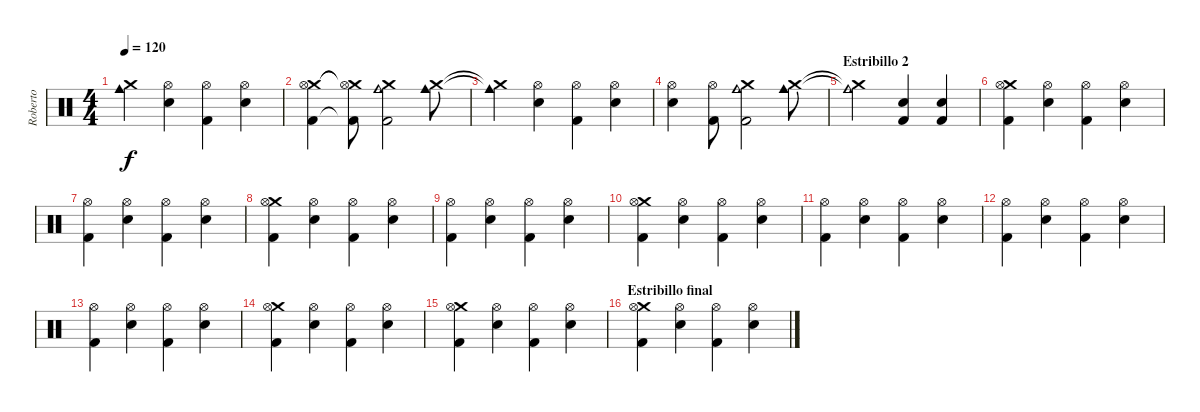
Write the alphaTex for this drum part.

\track ("Roberto" "Roberto") {instrument percussion}
\staff {score}
\articulation defaults
\ts (4 4)
\tempo 120
\clef neutral
\ks c
("Crash medium (hit)"{t} "Cowbell medium (hit)"{t}).4{dy f} ("Hi-Hat (open)" "Snare (hit) 2").4 ("Hi-Hat (open)" "Kick (hit) 2").4 ("Hi-Hat (open)" "Snare (hit) 2").4 |
("Crash medium (hit)" "Hi-Hat (open)" "Kick (hit) 2").4 ("Crash medium (hit)"{t} "Hi-Hat (open)"{t} "Kick (hit) 2"{t}).8 ("Crash medium (hit)" "Cowbell medium (hit)" "Kick (hit) 2").2 ("Crash medium (hit)" "Cowbell medium (hit)").8 |
("Crash medium (hit)"{t} "Cowbell medium (hit)"{t}).4 ("Hi-Hat (open)" "Snare (hit) 2").4 ("Hi-Hat (open)" "Kick (hit) 2").4 ("Hi-Hat (open)" "Snare (hit) 2").4 |
("Hi-Hat (open)" "Snare (hit) 2").4 ("Hi-Hat (open)" "Kick (hit) 2").8 ("Crash medium (hit)" "Cowbell medium (hit)" "Kick (hit) 2").2 ("Crash medium (hit)" "Cowbell medium (hit)").8 |
\section ("" "Estribillo 2")
("Crash medium (hit)"{t} "Cowbell medium (hit)"{t}).2 ("Snare (hit) 2" "Kick (hit) 2").4 ("Snare (hit) 2" "Kick (hit) 2").4 |
("Crash medium (hit)" "Hi-Hat (open)" "Kick (hit) 2").4 ("Hi-Hat (open)" "Snare (hit) 2").4 ("Hi-Hat (open)" "Kick (hit) 2").4 ("Hi-Hat (open)" "Snare (hit) 2").4 |
("Hi-Hat (open)" "Kick (hit) 2").4 ("Hi-Hat (open)" "Snare (hit) 2").4 ("Hi-Hat (open)" "Kick (hit) 2").4 ("Hi-Hat (open)" "Snare (hit) 2").4 |
("Crash medium (hit)" "Hi-Hat (open)" "Kick (hit) 2").4 ("Hi-Hat (open)" "Snare (hit) 2").4 ("Hi-Hat (open)" "Kick (hit) 2").4 ("Hi-Hat (open)" "Snare (hit) 2").4 |
("Hi-Hat (open)" "Kick (hit) 2").4 ("Hi-Hat (open)" "Snare (hit) 2").4 ("Hi-Hat (open)" "Kick (hit) 2").4 ("Hi-Hat (open)" "Snare (hit) 2").4 |
("Crash medium (hit)" "Hi-Hat (open)" "Kick (hit) 2").4 ("Hi-Hat (open)" "Snare (hit) 2").4 ("Hi-Hat (open)" "Kick (hit) 2").4 ("Hi-Hat (open)" "Snare (hit) 2").4 |
("Hi-Hat (open)" "Kick (hit) 2").4 ("Hi-Hat (open)" "Snare (hit) 2").4 ("Hi-Hat (open)" "Kick (hit) 2").4 ("Hi-Hat (open)" "Snare (hit) 2").4 |
("Hi-Hat (open)" "Kick (hit) 2").4 ("Hi-Hat (open)" "Snare (hit) 2").4 ("Hi-Hat (open)" "Kick (hit) 2").4 ("Hi-Hat (open)" "Snare (hit) 2").4 |
("Hi-Hat (open)" "Kick (hit) 2").4 ("Hi-Hat (open)" "Snare (hit) 2").4 ("Hi-Hat (open)" "Kick (hit) 2").4 ("Hi-Hat (open)" "Snare (hit) 2").4 |
("Crash medium (hit)" "Hi-Hat (open)" "Kick (hit) 2").4{volume 16} ("Hi-Hat (open)" "Snare (hit) 2").4 ("Hi-Hat (open)" "Kick (hit) 2").4 ("Hi-Hat (open)" "Snare (hit) 2").4 |
\section ("" "")
("Crash medium (hit)" "Hi-Hat (open)" "Kick (hit) 2").4 ("Hi-Hat (open)" "Snare (hit) 2").4 ("Hi-Hat (open)" "Kick (hit) 2").4 ("Hi-Hat (open)" "Snare (hit) 2").4 |
\section ("" "Estribillo final")
("Crash medium (hit)" "Hi-Hat (open)" "Kick (hit) 2").4 ("Hi-Hat (open)" "Snare (hit) 2").4 ("Hi-Hat (open)" "Kick (hit) 2").4 ("Hi-Hat (open)" "Snare (hit) 2").4
